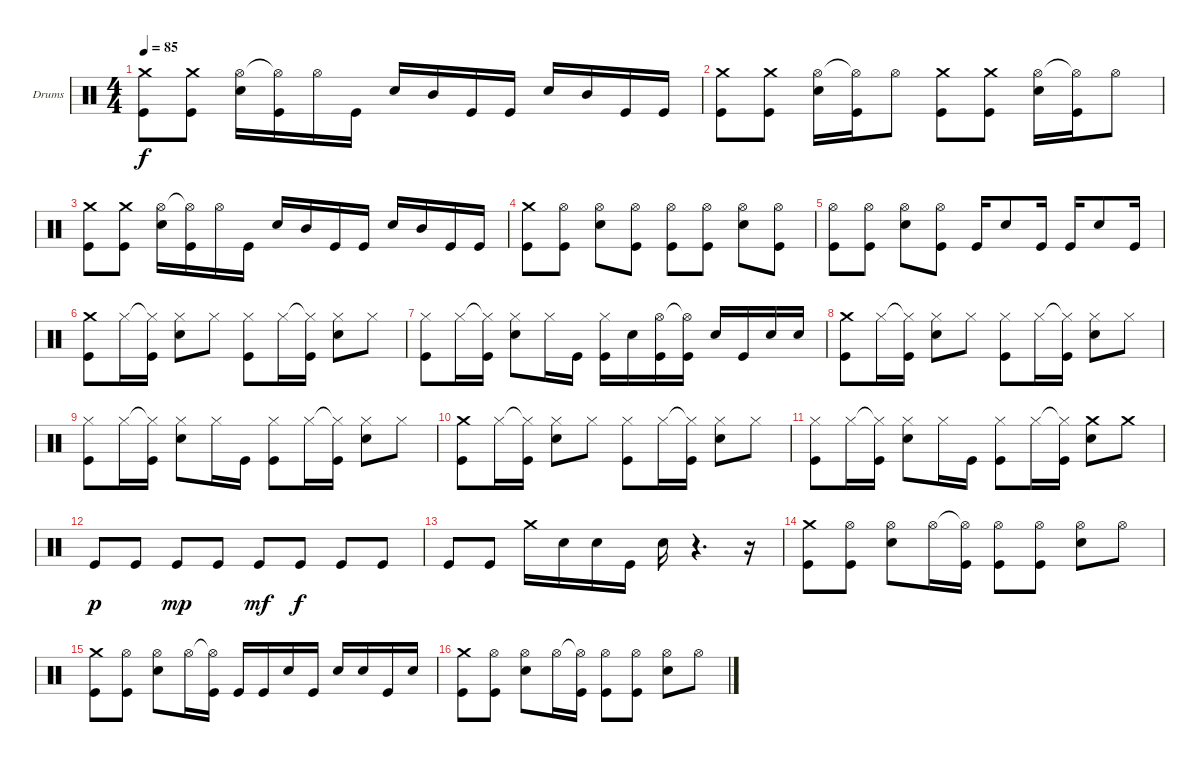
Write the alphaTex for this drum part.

\defaultSystemsLayout 4
\bracketExtendMode groupsimilarinstruments
\firstSystemTrackNameOrientation horizontal
\otherSystemsTrackNameOrientation horizontal
\track ("Drumkit" "Drums") {instrument percussion}
\staff {score}
\articulation defaults
\ts (4 4)
\tempo 85
\clef neutral
\scale
0.333333
\ks c
("Crash medium (hit)" "Kick (hit)").8{dy f} ("Crash medium (hit)" "Kick (hit)").8 ("Hi-Hat (open)" "Snare (hit) 2").16 ("Hi-Hat (open)"{t} "Kick (hit)").16 "Hi-Hat (open)".16 "Kick (hit)".16 "Snare (hit) 2".16 "Mid Tom (hit)".16 "Kick (hit)".16 "Kick (hit)".16 "Snare (hit) 2".16 "Mid Tom (hit)".16 "Kick (hit)".16 "Kick (hit)".16 |
\scale
0.333333 ("Crash medium (hit)" "Kick (hit)").8 ("Crash medium (hit)" "Kick (hit)").8 ("Hi-Hat (open)" "Snare (hit) 2").16 ("Hi-Hat (open)"{t} "Kick (hit)").16 "Hi-Hat (open)".8 ("Crash medium (hit)" "Kick (hit)").8 ("Crash medium (hit)" "Kick (hit)").8 ("Hi-Hat (open)" "Snare (hit) 2").16 ("Hi-Hat (open)"{t} "Kick (hit)").16 "Hi-Hat (open)".8 |
\scale
0.333333 ("Crash medium (hit)" "Kick (hit)").8 ("Crash medium (hit)" "Kick (hit)").8 ("Hi-Hat (open)" "Snare (hit) 2").16 ("Hi-Hat (open)"{t} "Kick (hit)").16 "Hi-Hat (open)".16 "Kick (hit)".16 "Snare (hit) 2".16 "Mid Tom (hit)".16 "Kick (hit)".16 "Kick (hit)".16 "Snare (hit) 2".16 "Mid Tom (hit)".16 "Kick (hit)".16 "Kick (hit)".16 |
\scale
0.333333 ("Crash medium (hit)" "Kick (hit)").8 ("Hi-Hat (open)" "Kick (hit)").8 ("Hi-Hat (open)" "Snare (hit) 2").8 ("Hi-Hat (open)" "Kick (hit)").8 ("Hi-Hat (open)" "Kick (hit)").8 ("Hi-Hat (open)" "Kick (hit)").8 ("Hi-Hat (open)" "Snare (hit) 2").8 ("Hi-Hat (open)" "Kick (hit)").8 |
\scale
0.333333 ("Hi-Hat (open)" "Kick (hit)").8 ("Hi-Hat (open)" "Kick (hit)").8 ("Hi-Hat (open)" "Snare (hit) 2").8 ("Hi-Hat (open)" "Kick (hit)").8 "Kick (hit)".16 "Snare (hit) 2".8 "Kick (hit)".16 "Kick (hit)".16 "Snare (hit) 2".8 "Kick (hit)".16 |
\scale
0.333333 ("Crash medium (hit)" "Kick (hit)").8 "Hi-Hat (closed)".16 ("Hi-Hat (closed)"{t} "Kick (hit)").16 ("Hi-Hat (closed)" "Snare (hit) 2").8 "Hi-Hat (closed)".8 ("Hi-Hat (closed)" "Kick (hit)").8 "Hi-Hat (closed)".16 ("Hi-Hat (closed)"{t} "Kick (hit)").16 ("Hi-Hat (closed)" "Snare (hit) 2").8 "Hi-Hat (closed)".8 |
\scale
0.333333 ("Hi-Hat (closed)" "Kick (hit)").8 "Hi-Hat (closed)".16 ("Hi-Hat (closed)"{t} "Kick (hit)").16 ("Hi-Hat (closed)" "Snare (hit) 2").8 "Hi-Hat (closed)".16 "Kick (hit)".16 ("Hi-Hat (closed)" "Kick (hit)").16 "Snare (hit) 2".16 ("Hi-Hat (open)" "Kick (hit)").16 ("Hi-Hat (open)"{t} "Kick (hit)").16 "Snare (hit) 2".16 "Kick (hit)".16 "Snare (hit) 2".16 "Snare (hit) 2".16 |
\scale
0.333333 ("Crash medium (hit)" "Kick (hit)").8 "Hi-Hat (closed)".16 ("Hi-Hat (closed)"{t} "Kick (hit)").16 ("Hi-Hat (closed)" "Snare (hit) 2").8 "Hi-Hat (closed)".8 ("Hi-Hat (closed)" "Kick (hit)").8 "Hi-Hat (closed)".16 ("Hi-Hat (closed)"{t} "Kick (hit)").16 ("Hi-Hat (closed)" "Snare (hit) 2").8 "Hi-Hat (closed)".8 |
\scale
0.333333 ("Hi-Hat (closed)" "Kick (hit)").8 "Hi-Hat (closed)".16 ("Hi-Hat (closed)"{t} "Kick (hit)").16 ("Hi-Hat (closed)" "Snare (hit) 2").8 "Hi-Hat (closed)".16 "Kick (hit)".16 ("Hi-Hat (closed)" "Kick (hit)").8 "Hi-Hat (closed)".16 ("Hi-Hat (closed)"{t} "Kick (hit)").16 ("Hi-Hat (closed)" "Snare (hit) 2").8 "Hi-Hat (closed)".8 |
\scale
0.333333 ("Crash medium (hit)" "Kick (hit)").8 "Hi-Hat (closed)".16 ("Hi-Hat (closed)"{t} "Kick (hit)").16 ("Hi-Hat (closed)" "Snare (hit) 2").8 "Hi-Hat (closed)".8 ("Hi-Hat (closed)" "Kick (hit)").8 "Hi-Hat (closed)".16 ("Hi-Hat (closed)"{t} "Kick (hit)").16 ("Hi-Hat (closed)" "Snare (hit) 2").8 "Hi-Hat (closed)".8 |
\scale
0.333333 ("Hi-Hat (closed)" "Kick (hit)").8 "Hi-Hat (closed)".16 ("Hi-Hat (closed)"{t} "Kick (hit)").16 ("Hi-Hat (closed)" "Snare (hit) 2").8 "Hi-Hat (closed)".16 "Kick (hit)".16 ("Hi-Hat (closed)" "Kick (hit)").8 "Hi-Hat (closed)".16 ("Hi-Hat (closed)"{t} "Kick (hit)").16 ("Crash medium (hit)" "Snare (hit) 2").8 "Crash medium (hit)".8 |
\scale
0.333333 "Kick (hit)".8{dy p} "Kick (hit)".8 "Kick (hit)".8{dy mp} "Kick (hit)".8 "Kick (hit)".8{dy mf} "Kick (hit)".8{dy f} "Kick (hit)".8 "Kick (hit)".8 |
\scale
0.333333 "Kick (hit)".8 "Kick (hit)".8 "Crash medium (hit)".16 "Snare (hit) 2".16 "Snare (hit) 2".16 "Kick (hit)".16 "Snare (hit) 2".16 r.4{d} r.16 |
\scale
0.333333 ("Crash medium (hit)" "Kick (hit)").8 ("Hi-Hat (open)" "Kick (hit)").8 ("Hi-Hat (open)" "Snare (hit) 2").8 "Hi-Hat (open)".16 ("Hi-Hat (open)"{t} "Kick (hit)").16 ("Hi-Hat (open)" "Kick (hit)").8 ("Hi-Hat (open)" "Kick (hit)").8 ("Hi-Hat (open)" "Snare (hit) 2").8 "Hi-Hat (open)".8 |
\scale
0.333333 ("Crash medium (hit)" "Kick (hit)").8 ("Hi-Hat (open)" "Kick (hit)").8 ("Hi-Hat (open)" "Snare (hit) 2").8 "Hi-Hat (open)".16 ("Hi-Hat (open)"{t} "Kick (hit)").16 "Kick (hit)".16 "Kick (hit)".16 "Snare (hit) 2".16 "Kick (hit)".16 "Snare (hit) 2".16 "Snare (hit) 2".16 "Kick (hit)".16 "Snare (hit) 2".16 |
\scale
0.333333 ("Crash medium (hit)" "Kick (hit)").8 ("Hi-Hat (open)" "Kick (hit)").8 ("Hi-Hat (open)" "Snare (hit) 2").8 "Hi-Hat (open)".16 ("Hi-Hat (open)"{t} "Kick (hit)").16 ("Hi-Hat (open)" "Kick (hit)").8 ("Hi-Hat (open)" "Kick (hit)").8 ("Hi-Hat (open)" "Snare (hit) 2").8 "Hi-Hat (open)".8
